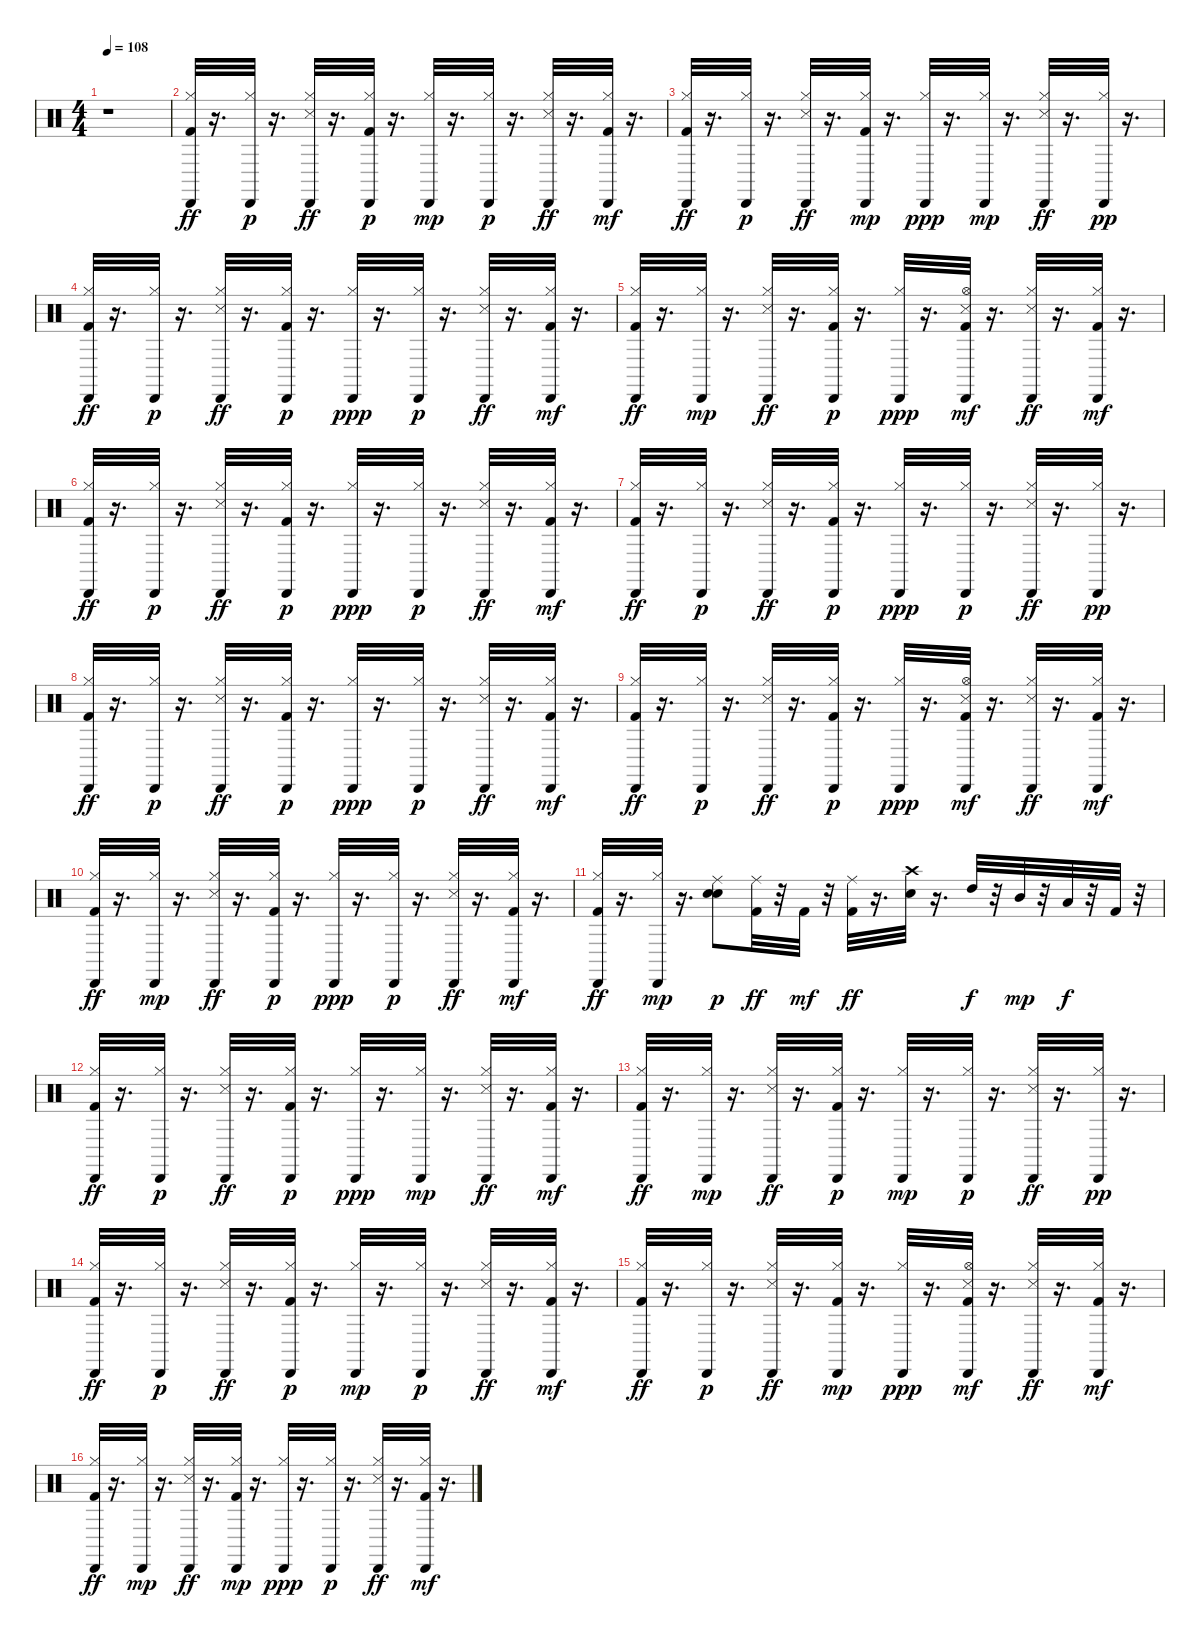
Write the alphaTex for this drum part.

\track "" {instrument percussion}
\staff {score}
\articulation defaults
\ts (4 4)
\tempo 108
\clef neutral
\ks c
r.1{dy ff} |
("Cabasa (hit)" "Hi-Hat (closed)" "Kick (hit) 2").32 r.16{d} ("Hi-Hat (closed)" "Cabasa (hit)").32{dy p} r.16{d} ("Hi-Hat (closed)" "Cabasa (hit)" "Snare (side stick) 3").32{dy ff} r.16{d} ("Hi-Hat (closed)" "Cabasa (hit)" "Kick (hit) 2").32{dy p} r.16{d} ("Cabasa (hit)" "Hi-Hat (closed)").32{dy mp} r.16{d} ("Hi-Hat (closed)" "Cabasa (hit)").32{dy p} r.16{d} ("Hi-Hat (closed)" "Cabasa (hit)" "Snare (side stick) 3").32{dy ff} r.16{d} ("Hi-Hat (closed)" "Cabasa (hit)" "Kick (hit) 2").32{dy mf} r.16{d} |
("Hi-Hat (closed)" "Cabasa (hit)" "Kick (hit) 2").32{dy ff} r.16{d} ("Hi-Hat (closed)" "Cabasa (hit)").32{dy p} r.16{d} ("Hi-Hat (closed)" "Cabasa (hit)" "Snare (side stick) 3").32{dy ff} r.16{d} ("Cabasa (hit)" "Hi-Hat (closed)" "Kick (hit) 2").32{dy mp} r.16{d} ("Hi-Hat (closed)" "Cabasa (hit)").32{dy ppp} r.16{d} ("Cabasa (hit)" "Hi-Hat (closed)").32{dy mp} r.16{d} ("Hi-Hat (closed)" "Cabasa (hit)" "Snare (side stick) 3").32{dy ff} r.16{d} ("Hi-Hat (closed)" "Cabasa (hit)").32{dy pp} r.16{d} |
("Hi-Hat (closed)" "Cabasa (hit)" "Kick (hit) 2").32{dy ff} r.16{d} ("Hi-Hat (closed)" "Cabasa (hit)").32{dy p} r.16{d} ("Hi-Hat (closed)" "Cabasa (hit)" "Snare (side stick) 3").32{dy ff} r.16{d} ("Hi-Hat (closed)" "Cabasa (hit)" "Kick (hit) 2").32{dy p} r.16{d} ("Hi-Hat (closed)" "Cabasa (hit)").32{dy ppp} r.16{d} ("Hi-Hat (closed)" "Cabasa (hit)").32{dy p} r.16{d} ("Hi-Hat (closed)" "Cabasa (hit)" "Snare (side stick) 3").32{dy ff} r.16{d} ("Hi-Hat (closed)" "Cabasa (hit)" "Kick (hit) 2").32{dy mf} r.16{d} |
("Cabasa (hit)" "Hi-Hat (closed)" "Kick (hit) 2").32{dy ff} r.16{d} ("Cabasa (hit)" "Hi-Hat (closed)").32{dy mp} r.16{d} ("Hi-Hat (closed)" "Cabasa (hit)" "Snare (side stick) 3").32{dy ff} r.16{d} ("Hi-Hat (closed)" "Cabasa (hit)" "Kick (hit) 2").32{dy p} r.16{d} ("Hi-Hat (closed)" "Cabasa (hit)").32{dy ppp} r.16{d} ("Cabasa (hit)" "Hi-Hat (open)" "Snare (side stick) 3" "Kick (hit) 2").32{dy mf} r.16{d} ("Hi-Hat (closed)" "Cabasa (hit)" "Snare (side stick) 3").32{dy ff} r.16{d} ("Hi-Hat (closed)" "Cabasa (hit)" "Kick (hit) 2").32{dy mf} r.16{d} |
("Hi-Hat (closed)" "Cabasa (hit)" "Kick (hit) 2").32{dy ff} r.16{d} ("Hi-Hat (closed)" "Cabasa (hit)").32{dy p} r.16{d} ("Hi-Hat (closed)" "Cabasa (hit)" "Snare (side stick) 3").32{dy ff} r.16{d} ("Hi-Hat (closed)" "Cabasa (hit)" "Kick (hit) 2").32{dy p} r.16{d} ("Hi-Hat (closed)" "Cabasa (hit)").32{dy ppp} r.16{d} ("Hi-Hat (closed)" "Cabasa (hit)").32{dy p} r.16{d} ("Hi-Hat (closed)" "Cabasa (hit)" "Snare (side stick) 3").32{dy ff} r.16{d} ("Hi-Hat (closed)" "Cabasa (hit)" "Kick (hit) 2").32{dy mf} r.16{d} |
("Hi-Hat (closed)" "Cabasa (hit)" "Kick (hit) 2").32{dy ff} r.16{d} ("Hi-Hat (closed)" "Cabasa (hit)").32{dy p} r.16{d} ("Hi-Hat (closed)" "Cabasa (hit)" "Snare (side stick) 3").32{dy ff} r.16{d} ("Hi-Hat (closed)" "Cabasa (hit)" "Kick (hit) 2").32{dy p} r.16{d} ("Hi-Hat (closed)" "Cabasa (hit)").32{dy ppp} r.16{d} ("Hi-Hat (closed)" "Cabasa (hit)").32{dy p} r.16{d} ("Hi-Hat (closed)" "Cabasa (hit)" "Snare (side stick) 3").32{dy ff} r.16{d} ("Hi-Hat (closed)" "Cabasa (hit)").32{dy pp} r.16{d} |
("Hi-Hat (closed)" "Cabasa (hit)" "Kick (hit) 2").32{dy ff} r.16{d} ("Hi-Hat (closed)" "Cabasa (hit)").32{dy p} r.16{d} ("Hi-Hat (closed)" "Cabasa (hit)" "Snare (side stick) 3").32{dy ff} r.16{d} ("Hi-Hat (closed)" "Cabasa (hit)" "Kick (hit) 2").32{dy p} r.16{d} ("Hi-Hat (closed)" "Cabasa (hit)").32{dy ppp} r.16{d} ("Hi-Hat (closed)" "Cabasa (hit)").32{dy p} r.16{d} ("Hi-Hat (closed)" "Cabasa (hit)" "Snare (side stick) 3").32{dy ff} r.16{d} ("Hi-Hat (closed)" "Cabasa (hit)" "Kick (hit) 2").32{dy mf} r.16{d} |
("Hi-Hat (closed)" "Cabasa (hit)" "Kick (hit) 2").32{dy ff} r.16{d} ("Hi-Hat (closed)" "Cabasa (hit)").32{dy p} r.16{d} ("Hi-Hat (closed)" "Cabasa (hit)" "Snare (side stick) 3").32{dy ff} r.16{d} ("Hi-Hat (closed)" "Cabasa (hit)" "Kick (hit) 2").32{dy p} r.16{d} ("Hi-Hat (closed)" "Cabasa (hit)").32{dy ppp} r.16{d} ("Cabasa (hit)" "Hi-Hat (open)" "Snare (side stick) 3" "Kick (hit) 2").32{dy mf} r.16{d} ("Hi-Hat (closed)" "Cabasa (hit)" "Snare (side stick) 3").32{dy ff} r.16{d} ("Hi-Hat (closed)" "Cabasa (hit)" "Kick (hit) 2").32{dy mf} r.16{d} |
("Hi-Hat (closed)" "Cabasa (hit)" "Kick (hit) 2").32{dy ff} r.16{d} ("Cabasa (hit)" "Hi-Hat (closed)").32{dy mp} r.16{d} ("Hi-Hat (closed)" "Cabasa (hit)" "Snare (side stick) 3").32{dy ff} r.16{d} ("Hi-Hat (closed)" "Cabasa (hit)" "Kick (hit) 2").32{dy p} r.16{d} ("Hi-Hat (closed)" "Cabasa (hit)").32{dy ppp} r.16{d} ("Hi-Hat (closed)" "Cabasa (hit)").32{dy p} r.16{d} ("Hi-Hat (closed)" "Cabasa (hit)" "Snare (side stick) 3").32{dy ff} r.16{d} ("Hi-Hat (closed)" "Cabasa (hit)" "Kick (hit) 2").32{dy mf} r.16{d} |
("Hi-Hat (closed)" "Cabasa (hit)" "Kick (hit) 2").32{dy ff} r.16{d} ("Cabasa (hit)" "Hi-Hat (closed)").32{dy mp} r.16{d} ("Snare (hit) 2" "Ride (middle)" "Snare (hit) 2").8{dy p} ("Ride (middle)" "Kick (hit) 2").32{dy ff} r.32 "Kick (hit) 2".32{dy mf} r.32 ("Ride (middle)" "Kick (hit) 2").32{dy ff} r.16{d} ("Crash high (hit)" "Snare (hit) 2").32 r.16{d} "High Tom (hit)".32{dy f} r.32 "Mid Tom (hit)".32{dy mp} r.32 "Low Tom (hit)".32{dy f} r.32 "Kick (hit) 2".32 r.32 |
("Hi-Hat (closed)" "Cabasa (hit)" "Kick (hit) 2").32{dy ff} r.16{d} ("Hi-Hat (closed)" "Cabasa (hit)").32{dy p} r.16{d} ("Hi-Hat (closed)" "Cabasa (hit)" "Snare (side stick) 3").32{dy ff} r.16{d} ("Hi-Hat (closed)" "Cabasa (hit)" "Kick (hit) 2").32{dy p} r.16{d} ("Hi-Hat (closed)" "Cabasa (hit)").32{dy ppp} r.16{d} ("Cabasa (hit)" "Hi-Hat (closed)").32{dy mp} r.16{d} ("Hi-Hat (closed)" "Cabasa (hit)" "Snare (side stick) 3").32{dy ff} r.16{d} ("Hi-Hat (closed)" "Cabasa (hit)" "Kick (hit) 2").32{dy mf} r.16{d} |
("Hi-Hat (closed)" "Cabasa (hit)" "Kick (hit) 2").32{dy ff} r.16{d} ("Cabasa (hit)" "Hi-Hat (closed)").32{dy mp} r.16{d} ("Hi-Hat (closed)" "Cabasa (hit)" "Snare (side stick) 3").32{dy ff} r.16{d} ("Hi-Hat (closed)" "Cabasa (hit)" "Kick (hit) 2").32{dy p} r.16{d} ("Cabasa (hit)" "Hi-Hat (closed)").32{dy mp} r.16{d} ("Hi-Hat (closed)" "Cabasa (hit)").32{dy p} r.16{d} ("Hi-Hat (closed)" "Cabasa (hit)" "Snare (side stick) 3").32{dy ff} r.16{d} ("Hi-Hat (closed)" "Cabasa (hit)").32{dy pp} r.16{d} |
("Cabasa (hit)" "Hi-Hat (closed)" "Kick (hit) 2").32{dy ff} r.16{d} ("Hi-Hat (closed)" "Cabasa (hit)").32{dy p} r.16{d} ("Hi-Hat (closed)" "Cabasa (hit)" "Snare (side stick) 3").32{dy ff} r.16{d} ("Hi-Hat (closed)" "Cabasa (hit)" "Kick (hit) 2").32{dy p} r.16{d} ("Cabasa (hit)" "Hi-Hat (closed)").32{dy mp} r.16{d} ("Hi-Hat (closed)" "Cabasa (hit)").32{dy p} r.16{d} ("Hi-Hat (closed)" "Cabasa (hit)" "Snare (side stick) 3").32{dy ff} r.16{d} ("Hi-Hat (closed)" "Cabasa (hit)" "Kick (hit) 2").32{dy mf} r.16{d} |
("Hi-Hat (closed)" "Cabasa (hit)" "Kick (hit) 2").32{dy ff} r.16{d} ("Hi-Hat (closed)" "Cabasa (hit)").32{dy p} r.16{d} ("Hi-Hat (closed)" "Cabasa (hit)" "Snare (side stick) 3").32{dy ff} r.16{d} ("Cabasa (hit)" "Hi-Hat (closed)" "Kick (hit) 2").32{dy mp} r.16{d} ("Hi-Hat (closed)" "Cabasa (hit)").32{dy ppp} r.16{d} ("Cabasa (hit)" "Hi-Hat (open)" "Snare (side stick) 3" "Kick (hit) 2").32{dy mf} r.16{d} ("Hi-Hat (closed)" "Cabasa (hit)" "Snare (side stick) 3").32{dy ff} r.16{d} ("Hi-Hat (closed)" "Cabasa (hit)" "Kick (hit) 2").32{dy mf} r.16{d} |
("Hi-Hat (closed)" "Cabasa (hit)" "Kick (hit) 2").32{dy ff} r.16{d} ("Cabasa (hit)" "Hi-Hat (closed)").32{dy mp} r.16{d} ("Hi-Hat (closed)" "Cabasa (hit)" "Snare (side stick) 3").32{dy ff} r.16{d} ("Cabasa (hit)" "Hi-Hat (closed)" "Kick (hit) 2").32{dy mp} r.16{d} ("Hi-Hat (closed)" "Cabasa (hit)").32{dy ppp} r.16{d} ("Hi-Hat (closed)" "Cabasa (hit)").32{dy p} r.16{d} ("Hi-Hat (closed)" "Cabasa (hit)" "Snare (side stick) 3").32{dy ff} r.16{d} ("Hi-Hat (closed)" "Cabasa (hit)" "Kick (hit) 2").32{dy mf} r.16{d}
